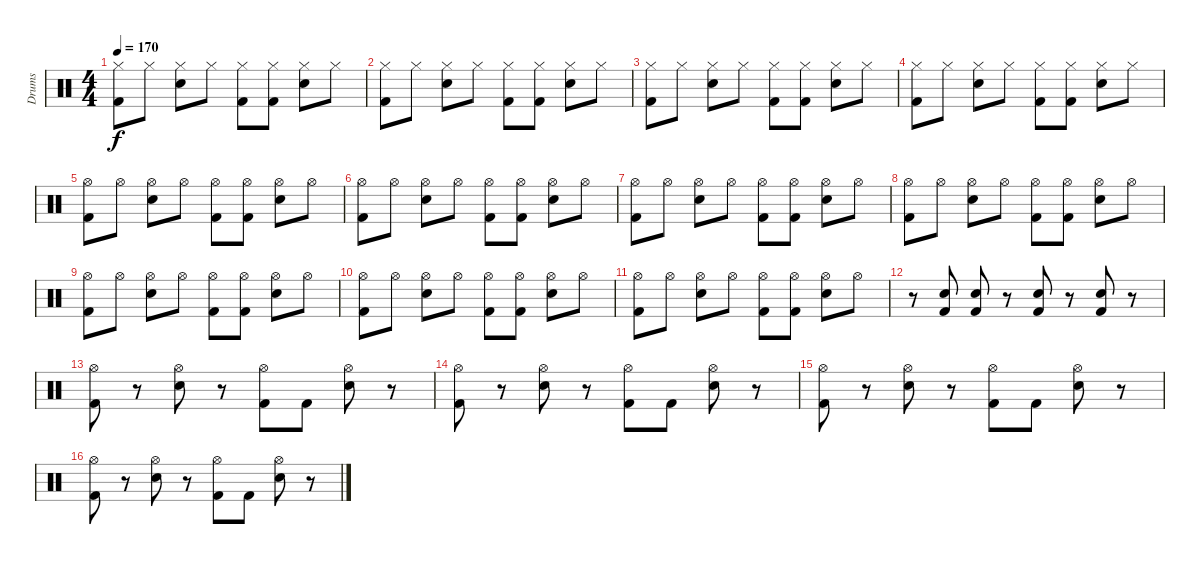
\track ("Drums" "Drums") {instrument percussion}
\staff {score}
\articulation defaults
\ts (4 4)
\tempo 170
\clef neutral
\ks c
("Hi-Hat (closed)" "Kick (hit) 2").8{dy f} "Hi-Hat (closed)".8 ("Hi-Hat (closed)" "Snare (hit) 2").8 "Hi-Hat (closed)".8 ("Hi-Hat (closed)" "Kick (hit) 2").8 ("Hi-Hat (closed)" "Kick (hit) 2").8 ("Hi-Hat (closed)" "Snare (hit) 2").8 "Hi-Hat (closed)".8 |
("Hi-Hat (closed)" "Kick (hit) 2").8 "Hi-Hat (closed)".8 ("Hi-Hat (closed)" "Snare (hit) 2").8 "Hi-Hat (closed)".8 ("Hi-Hat (closed)" "Kick (hit) 2").8 ("Hi-Hat (closed)" "Kick (hit) 2").8 ("Hi-Hat (closed)" "Snare (hit) 2").8 "Hi-Hat (closed)".8 |
("Hi-Hat (closed)" "Kick (hit) 2").8 "Hi-Hat (closed)".8 ("Hi-Hat (closed)" "Snare (hit) 2").8 "Hi-Hat (closed)".8 ("Hi-Hat (closed)" "Kick (hit) 2").8 ("Hi-Hat (closed)" "Kick (hit) 2").8 ("Hi-Hat (closed)" "Snare (hit) 2").8 "Hi-Hat (closed)".8 |
("Hi-Hat (closed)" "Kick (hit) 2").8 "Hi-Hat (closed)".8 ("Hi-Hat (closed)" "Snare (hit) 2").8 "Hi-Hat (closed)".8 ("Hi-Hat (closed)" "Kick (hit) 2").8 ("Hi-Hat (closed)" "Kick (hit) 2").8 ("Hi-Hat (closed)" "Snare (hit) 2").8 "Hi-Hat (closed)".8 |
("Hi-Hat (open)" "Kick (hit) 2").8 "Hi-Hat (open)".8 ("Hi-Hat (open)" "Snare (hit) 2").8 "Hi-Hat (open)".8 ("Hi-Hat (open)" "Kick (hit) 2").8 ("Hi-Hat (open)" "Kick (hit) 2").8 ("Hi-Hat (open)" "Snare (hit) 2").8 "Hi-Hat (open)".8 |
("Hi-Hat (open)" "Kick (hit) 2").8 "Hi-Hat (open)".8 ("Hi-Hat (open)" "Snare (hit) 2").8 "Hi-Hat (open)".8 ("Hi-Hat (open)" "Kick (hit) 2").8 ("Hi-Hat (open)" "Kick (hit) 2").8 ("Hi-Hat (open)" "Snare (hit) 2").8 "Hi-Hat (open)".8 |
("Hi-Hat (open)" "Kick (hit) 2").8 "Hi-Hat (open)".8 ("Hi-Hat (open)" "Snare (hit) 2").8 "Hi-Hat (open)".8 ("Hi-Hat (open)" "Kick (hit) 2").8 ("Hi-Hat (open)" "Kick (hit) 2").8 ("Hi-Hat (open)" "Snare (hit) 2").8 "Hi-Hat (open)".8 |
("Hi-Hat (open)" "Kick (hit) 2").8 "Hi-Hat (open)".8 ("Hi-Hat (open)" "Snare (hit) 2").8 "Hi-Hat (open)".8 ("Hi-Hat (open)" "Kick (hit) 2").8 ("Hi-Hat (open)" "Kick (hit) 2").8 ("Hi-Hat (open)" "Snare (hit) 2").8 "Hi-Hat (open)".8 |
("Hi-Hat (open)" "Kick (hit) 2").8 "Hi-Hat (open)".8 ("Hi-Hat (open)" "Snare (hit) 2").8 "Hi-Hat (open)".8 ("Hi-Hat (open)" "Kick (hit) 2").8 ("Hi-Hat (open)" "Kick (hit) 2").8 ("Hi-Hat (open)" "Snare (hit) 2").8 "Hi-Hat (open)".8 |
("Hi-Hat (open)" "Kick (hit) 2").8 "Hi-Hat (open)".8 ("Hi-Hat (open)" "Snare (hit) 2").8 "Hi-Hat (open)".8 ("Hi-Hat (open)" "Kick (hit) 2").8 ("Hi-Hat (open)" "Kick (hit) 2").8 ("Hi-Hat (open)" "Snare (hit) 2").8 "Hi-Hat (open)".8 |
("Hi-Hat (open)" "Kick (hit) 2").8 "Hi-Hat (open)".8 ("Hi-Hat (open)" "Snare (hit) 2").8 "Hi-Hat (open)".8 ("Hi-Hat (open)" "Kick (hit) 2").8 ("Hi-Hat (open)" "Kick (hit) 2").8 ("Hi-Hat (open)" "Snare (hit) 2").8 "Hi-Hat (open)".8 |
r.8 ("Kick (hit) 2" "Snare (hit) 2").8 ("Kick (hit) 2" "Snare (hit) 2").8 r.8 ("Kick (hit) 2" "Snare (hit) 2").8 r.8 ("Kick (hit) 2" "Snare (hit) 2").8 r.8 |
("Hi-Hat (open)" "Kick (hit) 2").8 r.8 ("Hi-Hat (open)" "Snare (hit) 2").8 r.8 ("Hi-Hat (open)" "Kick (hit) 2").8 "Kick (hit) 2".8 ("Hi-Hat (open)" "Snare (hit) 2").8 r.8 |
("Hi-Hat (open)" "Kick (hit) 2").8 r.8 ("Hi-Hat (open)" "Snare (hit) 2").8 r.8 ("Hi-Hat (open)" "Kick (hit) 2").8 "Kick (hit) 2".8 ("Hi-Hat (open)" "Snare (hit) 2").8 r.8 |
("Hi-Hat (open)" "Kick (hit) 2").8 r.8 ("Hi-Hat (open)" "Snare (hit) 2").8 r.8 ("Hi-Hat (open)" "Kick (hit) 2").8 "Kick (hit) 2".8 ("Hi-Hat (open)" "Snare (hit) 2").8 r.8 |
("Hi-Hat (open)" "Kick (hit) 2").8 r.8 ("Hi-Hat (open)" "Snare (hit) 2").8 r.8 ("Hi-Hat (open)" "Kick (hit) 2").8 "Kick (hit) 2".8 ("Hi-Hat (open)" "Snare (hit) 2").8 r.8
